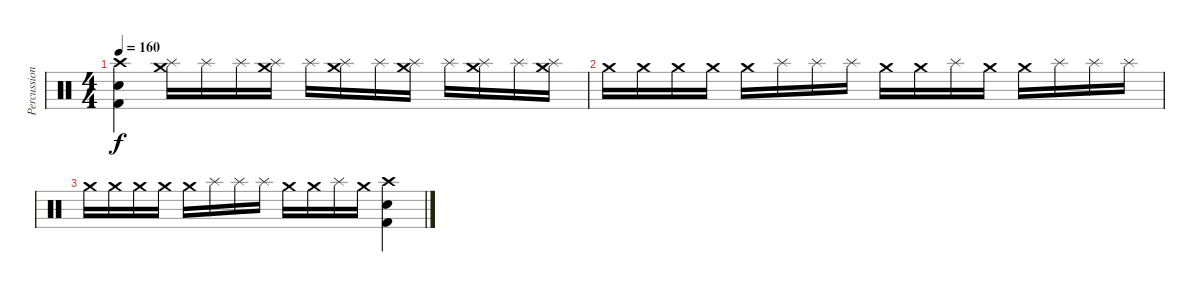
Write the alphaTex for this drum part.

\track ("Percussion" "Percussion") {instrument percussion}
\staff {score}
\articulation defaults
\ts (4 4)
\tempo 160
\clef neutral
\ks c
("Crash high (hit)" "Electric Snare (hit)" "Kick (hit) 2").4{dy f} ("Splash (hit)" "Crash medium (hit)").16 "Splash (hit)".16 "Splash (hit)".16 ("Splash (hit)" "Crash medium (hit)").16 "Splash (hit)".16 ("Splash (hit)" "Crash medium (hit)").16 "Splash (hit)".16 ("Splash (hit)" "Crash medium (hit)").16 "Splash (hit)".16 ("Splash (hit)" "Crash medium (hit)").16 "Splash (hit)".16 ("Splash (hit)" "Crash medium (hit)").16 |
"Crash medium (hit)".16 "Crash medium (hit)".16 "Crash medium (hit)".16 "Crash medium (hit)".16 "Crash medium (hit)".16 "Splash (hit)".16 "Splash (hit)".16 "Splash (hit)".16 "Crash medium (hit)".16 "Crash medium (hit)".16 "Splash (hit)".16 "Crash medium (hit)".16 "Crash medium (hit)".16 "Splash (hit)".16 "Splash (hit)".16 "Splash (hit)".16 |
"Crash medium (hit)".16 "Crash medium (hit)".16 "Crash medium (hit)".16 "Crash medium (hit)".16 "Crash medium (hit)".16 "Splash (hit)".16 "Splash (hit)".16 "Splash (hit)".16 "Crash medium (hit)".16 "Crash medium (hit)".16 "Splash (hit)".16 "Crash medium (hit)".16 ("Crash high (hit)" "Electric Snare (hit)" "Kick (hit) 2").4
